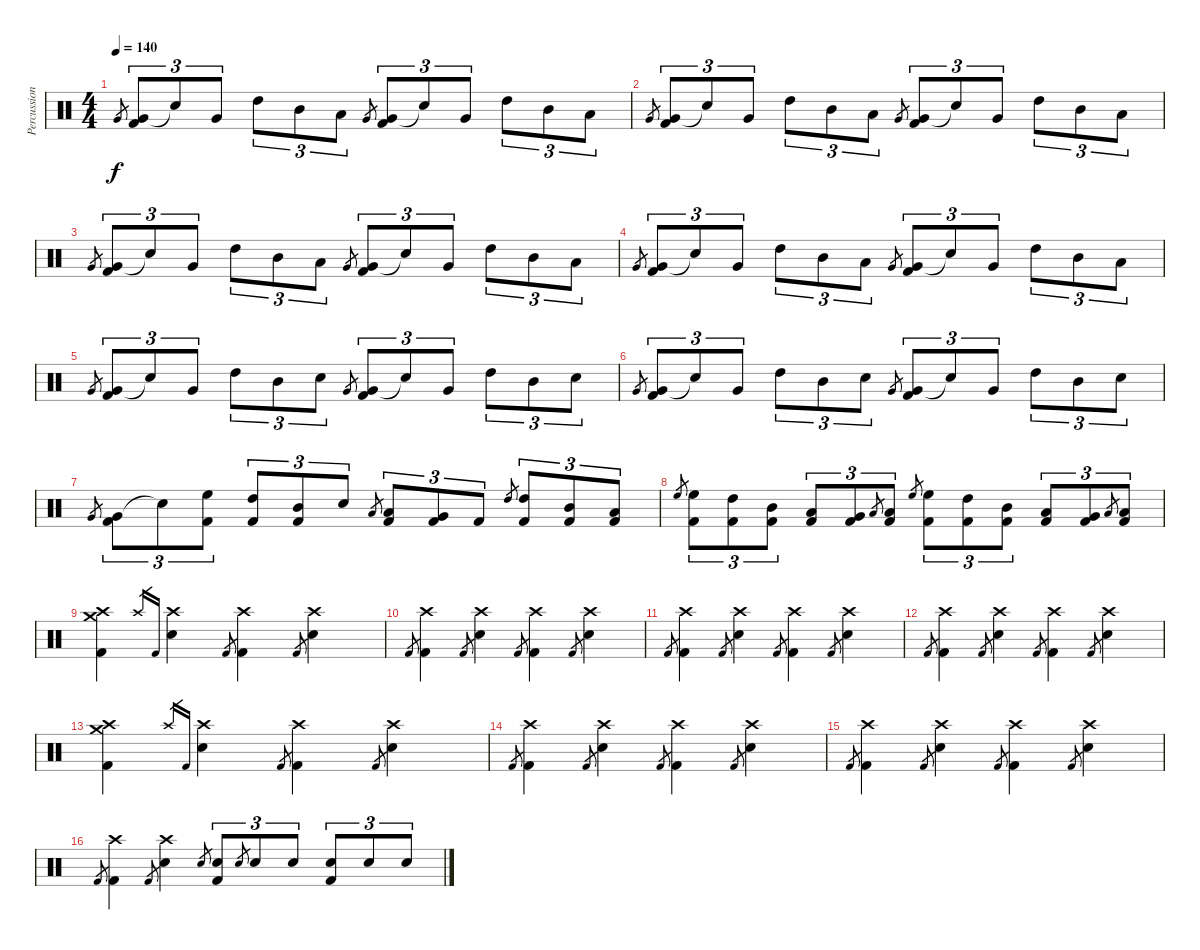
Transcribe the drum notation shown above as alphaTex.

\track ("Percussion" "Percussion") {instrument percussion}
\staff {score}
\articulation defaults
\ts (4 4)
\tempo 140
\clef neutral
\ks c "Very Low Tom (hit)".8{gr dy f}
("Very Low Tom (hit)" "Kick (hit) 2").8{tu (3 2)} "Snare (hit)"{t}.8{tu (3 2)} "Very Low Tom (hit)".8{tu (3 2)} "High Tom (hit)".8{tu (3 2)} "Mid Tom (hit)".8{tu (3 2)} "Low Tom (hit)".8{tu (3 2)} "Very Low Tom (hit)".8{gr} ("Very Low Tom (hit)" "Kick (hit) 2").8{tu (3 2)} "Snare (hit)"{t}.8{tu (3 2)} "Very Low Tom (hit)".8{tu (3 2)} "High Tom (hit)".8{tu (3 2)} "Mid Tom (hit)".8{tu (3 2)} "Low Tom (hit)".8{tu (3 2)} |
"Very Low Tom (hit)".8{gr} ("Very Low Tom (hit)" "Kick (hit) 2").8{tu (3 2)} "Snare (hit)"{t}.8{tu (3 2)} "Very Low Tom (hit)".8{tu (3 2)} "High Tom (hit)".8{tu (3 2)} "Mid Tom (hit)".8{tu (3 2)} "Low Tom (hit)".8{tu (3 2)} "Very Low Tom (hit)".8{gr} ("Very Low Tom (hit)" "Kick (hit) 2").8{tu (3 2)} "Snare (hit)"{t}.8{tu (3 2)} "Very Low Tom (hit)".8{tu (3 2)} "High Tom (hit)".8{tu (3 2)} "Mid Tom (hit)".8{tu (3 2)} "Low Tom (hit)".8{tu (3 2)} |
"Very Low Tom (hit)".8{gr} ("Very Low Tom (hit)" "Kick (hit) 2").8{tu (3 2)} "Snare (hit)"{t}.8{tu (3 2)} "Very Low Tom (hit)".8{tu (3 2)} "High Tom (hit)".8{tu (3 2)} "Mid Tom (hit)".8{tu (3 2)} "Low Tom (hit)".8{tu (3 2)} "Very Low Tom (hit)".8{gr} ("Very Low Tom (hit)" "Kick (hit) 2").8{tu (3 2)} "Snare (hit)"{t}.8{tu (3 2)} "Very Low Tom (hit)".8{tu (3 2)} "High Tom (hit)".8{tu (3 2)} "Mid Tom (hit)".8{tu (3 2)} "Low Tom (hit)".8{tu (3 2)} |
"Very Low Tom (hit)".8{gr} ("Very Low Tom (hit)" "Kick (hit) 2").8{tu (3 2)} "Snare (hit)"{t}.8{tu (3 2)} "Very Low Tom (hit)".8{tu (3 2)} "High Tom (hit)".8{tu (3 2)} "Mid Tom (hit)".8{tu (3 2)} "Low Tom (hit)".8{tu (3 2)} "Very Low Tom (hit)".8{gr} ("Very Low Tom (hit)" "Kick (hit) 2").8{tu (3 2)} "Snare (hit)"{t}.8{tu (3 2)} "Very Low Tom (hit)".8{tu (3 2)} "High Tom (hit)".8{tu (3 2)} "Mid Tom (hit)".8{tu (3 2)} "Low Tom (hit)".8{tu (3 2)} |
"Very Low Tom (hit)".8{gr} ("Very Low Tom (hit)" "Kick (hit) 2").8{tu (3 2)} "Snare (hit)"{t}.8{tu (3 2)} "Very Low Tom (hit)".8{tu (3 2)} "High Tom (hit)".8{tu (3 2)} "Mid Tom (hit)".8{tu (3 2)} "Electric Snare (hit)".8{tu (3 2)} "Very Low Tom (hit)".8{gr} ("Very Low Tom (hit)" "Kick (hit) 2").8{tu (3 2)} "Snare (hit)"{t}.8{tu (3 2)} "Very Low Tom (hit)".8{tu (3 2)} "High Tom (hit)".8{tu (3 2)} "Mid Tom (hit)".8{tu (3 2)} "Electric Snare (hit)".8{tu (3 2)} |
"Very Low Tom (hit)".8{gr} ("Very Low Tom (hit)" "Kick (hit) 2").8{tu (3 2)} "Snare (hit)"{t}.8{tu (3 2)} "Very Low Tom (hit)".8{tu (3 2)} "High Tom (hit)".8{tu (3 2)} "Mid Tom (hit)".8{tu (3 2)} "Electric Snare (hit)".8{tu (3 2)} "Very Low Tom (hit)".8{gr} ("Very Low Tom (hit)" "Kick (hit) 2").8{tu (3 2)} "Snare (hit)"{t}.8{tu (3 2)} "Very Low Tom (hit)".8{tu (3 2)} "High Tom (hit)".8{tu (3 2)} "Mid Tom (hit)".8{tu (3 2)} "Electric Snare (hit)".8{tu (3 2)} |
"Very Low Tom (hit)".8{gr} ("Very Low Tom (hit)" "Kick (hit) 2").8{tu (3 2)} "Snare (hit)"{t}.8{tu (3 2)} ("High Floor Tom (hit)" "Kick (hit) 2").8{tu (3 2)} ("High Tom (hit)" "Kick (hit) 2").8{tu (3 2)} ("Mid Tom (hit)" "Kick (hit) 2").8{tu (3 2)} "Electric Snare (hit)".8{tu (3 2)} "Low Tom (hit)".8{gr} ("Low Tom (hit)" "Kick (hit) 2").8{tu (3 2)} ("Very Low Tom (hit)" "Kick (hit) 2").8{tu (3 2)} "Kick (hit) 2".8{tu (3 2)} "High Tom (hit)".8{gr} ("High Tom (hit)" "Kick (hit) 2").8{tu (3 2)} ("Mid Tom (hit)" "Kick (hit) 2").8{tu (3 2)} ("Low Tom (hit)" "Kick (hit) 2").8{tu (3 2)} |
"High Floor Tom (hit)".8{gr} ("High Floor Tom (hit)" "Kick (hit) 2").8{tu (3 2)} ("High Tom (hit)" "Kick (hit) 2").8{tu (3 2)} ("Mid Tom (hit)" "Kick (hit) 2").8{tu (3 2)} ("Low Tom (hit)" "Kick (hit) 2").8{tu (3 2)} ("Very Low Tom (hit)" "Kick (hit) 2").8{tu (3 2)} "Low Tom (hit)".8{gr} ("Low Tom (hit)" "Kick (hit) 2").8{tu (3 2)} "High Floor Tom (hit)".8{gr} ("High Floor Tom (hit)" "Kick (hit) 2").8{tu (3 2)} ("High Tom (hit)" "Kick (hit) 2").8{tu (3 2)} ("Mid Tom (hit)" "Kick (hit) 2").8{tu (3 2)} ("Low Tom (hit)" "Kick (hit) 2").8{tu (3 2)} ("Very Low Tom (hit)" "Kick (hit) 2").8{tu (3 2)} "Low Tom (hit)".8{gr} ("Low Tom (hit)" "Kick (hit) 2").8{tu (3 2)} |
("Crash medium (hit)" "Crash high (hit)" "Kick (hit) 2").4 "Crash high (hit)".16{gr} "Kick (hit) 2".16{gr} ("Crash high (hit)" "Electric Snare (hit)").4 "Kick (hit) 2".8{gr} ("Crash high (hit)" "Kick (hit) 2").4 "Kick (hit) 2".8{gr} ("Crash high (hit)" "Electric Snare (hit)").4 |
"Kick (hit) 2".8{gr} ("Crash high (hit)" "Kick (hit) 2").4 "Kick (hit) 2".8{gr} ("Crash high (hit)" "Electric Snare (hit)").4 "Kick (hit) 2".8{gr} ("Crash high (hit)" "Kick (hit) 2").4 "Kick (hit) 2".8{gr} ("Crash high (hit)" "Electric Snare (hit)").4 |
"Kick (hit) 2".8{gr} ("Crash high (hit)" "Kick (hit) 2").4 "Kick (hit) 2".8{gr} ("Crash high (hit)" "Electric Snare (hit)").4 "Kick (hit) 2".8{gr} ("Crash high (hit)" "Kick (hit) 2").4 "Kick (hit) 2".8{gr} ("Crash high (hit)" "Electric Snare (hit)").4 |
"Kick (hit) 2".8{gr} ("Crash high (hit)" "Kick (hit) 2").4 "Kick (hit) 2".8{gr} ("Crash high (hit)" "Electric Snare (hit)").4 "Kick (hit) 2".8{gr} ("Crash high (hit)" "Kick (hit) 2").4 "Kick (hit) 2".8{gr} ("Crash high (hit)" "Electric Snare (hit)").4 |
("Crash medium (hit)" "Crash high (hit)" "Kick (hit) 2").4 "Crash high (hit)".16{gr} "Kick (hit) 2".16{gr} ("Crash high (hit)" "Electric Snare (hit)").4 "Kick (hit) 2".8{gr} ("Crash high (hit)" "Kick (hit) 2").4 "Kick (hit) 2".8{gr} ("Crash high (hit)" "Electric Snare (hit)").4 |
"Kick (hit) 2".8{gr} ("Crash high (hit)" "Kick (hit) 2").4 "Kick (hit) 2".8{gr} ("Crash high (hit)" "Electric Snare (hit)").4 "Kick (hit) 2".8{gr} ("Crash high (hit)" "Kick (hit) 2").4 "Kick (hit) 2".8{gr} ("Crash high (hit)" "Electric Snare (hit)").4 |
"Kick (hit) 2".8{gr} ("Crash high (hit)" "Kick (hit) 2").4 "Kick (hit) 2".8{gr} ("Crash high (hit)" "Electric Snare (hit)").4 "Kick (hit) 2".8{gr} ("Crash high (hit)" "Kick (hit) 2").4 "Kick (hit) 2".8{gr} ("Crash high (hit)" "Electric Snare (hit)").4 |
"Kick (hit) 2".8{gr} ("Crash high (hit)" "Kick (hit) 2").4 "Kick (hit) 2".8{gr} ("Crash high (hit)" "Electric Snare (hit)").4 "Electric Snare (hit)".8{gr} ("Electric Snare (hit)" "Kick (hit) 2").8{tu (3 2)} "Electric Snare (hit)".8{gr} "Electric Snare (hit)".8{tu (3 2)} "Electric Snare (hit)".8{tu (3 2)} ("Electric Snare (hit)" "Kick (hit) 2").8{tu (3 2)} "Electric Snare (hit)".8{tu (3 2)} "Electric Snare (hit)".8{tu (3 2)}
